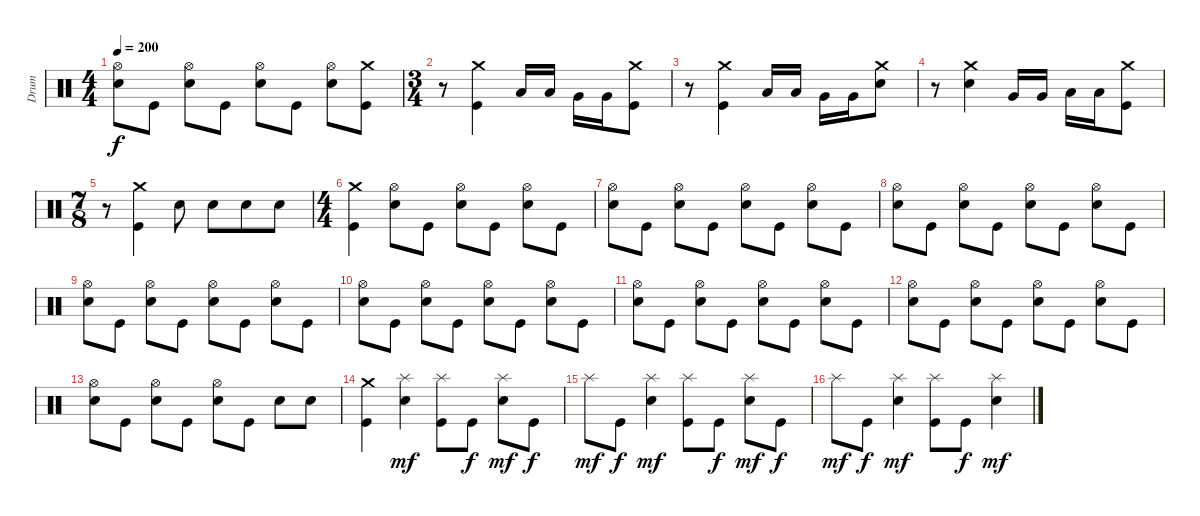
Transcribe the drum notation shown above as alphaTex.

\track ("Drum" "Drum") {instrument percussion}
\staff {score}
\articulation defaults
\ts (4 4)
\tempo 200
\clef neutral
\ks c
("Electric Snare (hit)" "Hi-Hat (open)").8{dy f} "Kick (hit)".8 ("Electric Snare (hit)" "Hi-Hat (open)").8 "Kick (hit)".8 ("Electric Snare (hit)" "Hi-Hat (open)").8 "Kick (hit)".8 ("Electric Snare (hit)" "Hi-Hat (open)").8 ("Kick (hit)" "Crash medium (hit)").8 |
\ts (3 4)
r.8 ("Kick (hit)" "Crash medium (hit)").4 "Low Tom (hit)".16 "Low Tom (hit)".16 "Very Low Tom (hit)".16 "Very Low Tom (hit)".16 ("Kick (hit)" "Crash medium (hit)").8 |
r.8 ("Kick (hit)" "Crash medium (hit)").4 "Low Tom (hit)".16 "Low Tom (hit)".16 "Very Low Tom (hit)".16 "Very Low Tom (hit)".16 ("Electric Snare (hit)" "Crash medium (hit)").8 |
r.8 ("Electric Snare (hit)" "Crash medium (hit)").4 "Very Low Tom (hit)".16 "Very Low Tom (hit)".16 "Low Tom (hit)".16 "Low Tom (hit)".16 ("Kick (hit)" "Crash medium (hit)").8 |
\ts (7 8)
r.8 ("Kick (hit)" "Crash medium (hit)").4 "Electric Snare (hit)".8 "Electric Snare (hit)".8 "Electric Snare (hit)".8 "Electric Snare (hit)".8 |
\ts (4 4)
("Kick (hit)" "Crash medium (hit)").4 ("Electric Snare (hit)" "Hi-Hat (open)").8 "Kick (hit)".8 ("Electric Snare (hit)" "Hi-Hat (open)").8 "Kick (hit)".8 ("Electric Snare (hit)" "Hi-Hat (open)").8 "Kick (hit)".8 |
("Electric Snare (hit)" "Hi-Hat (open)").8 "Kick (hit)".8 ("Electric Snare (hit)" "Hi-Hat (open)").8 "Kick (hit)".8 ("Electric Snare (hit)" "Hi-Hat (open)").8 "Kick (hit)".8 ("Electric Snare (hit)" "Hi-Hat (open)").8 "Kick (hit)".8 |
("Electric Snare (hit)" "Hi-Hat (open)").8 "Kick (hit)".8 ("Electric Snare (hit)" "Hi-Hat (open)").8 "Kick (hit)".8 ("Electric Snare (hit)" "Hi-Hat (open)").8 "Kick (hit)".8 ("Electric Snare (hit)" "Hi-Hat (open)").8 "Kick (hit)".8 |
("Electric Snare (hit)" "Hi-Hat (open)").8 "Kick (hit)".8 ("Electric Snare (hit)" "Hi-Hat (open)").8 "Kick (hit)".8 ("Electric Snare (hit)" "Hi-Hat (open)").8 "Kick (hit)".8 ("Electric Snare (hit)" "Hi-Hat (open)").8 "Kick (hit)".8 |
("Electric Snare (hit)" "Hi-Hat (open)").8 "Kick (hit)".8 ("Electric Snare (hit)" "Hi-Hat (open)").8 "Kick (hit)".8 ("Electric Snare (hit)" "Hi-Hat (open)").8 "Kick (hit)".8 ("Electric Snare (hit)" "Hi-Hat (open)").8 "Kick (hit)".8 |
("Electric Snare (hit)" "Hi-Hat (open)").8 "Kick (hit)".8 ("Electric Snare (hit)" "Hi-Hat (open)").8 "Kick (hit)".8 ("Electric Snare (hit)" "Hi-Hat (open)").8 "Kick (hit)".8 ("Electric Snare (hit)" "Hi-Hat (open)").8 "Kick (hit)".8 |
("Electric Snare (hit)" "Hi-Hat (open)").8 "Kick (hit)".8 ("Electric Snare (hit)" "Hi-Hat (open)").8 "Kick (hit)".8 ("Electric Snare (hit)" "Hi-Hat (open)").8 "Kick (hit)".8 ("Electric Snare (hit)" "Hi-Hat (open)").8 "Kick (hit)".8 |
("Electric Snare (hit)" "Hi-Hat (open)").8 "Kick (hit)".8 ("Electric Snare (hit)" "Hi-Hat (open)").8 "Kick (hit)".8 ("Electric Snare (hit)" "Hi-Hat (open)").8 "Kick (hit)".8 "Electric Snare (hit)".8 "Electric Snare (hit)".8 |
("Kick (hit)" "Crash medium (hit)").4 ("Electric Snare (hit)" "Splash (hit)").4{dy mf} ("Kick (hit)" "Splash (hit)").8 "Kick (hit)".8{dy f} ("Electric Snare (hit)" "Splash (hit)").8{dy mf} "Kick (hit)".8{dy f} |
"Splash (hit)".8{dy mf} "Kick (hit)".8{dy f} ("Electric Snare (hit)" "Splash (hit)").4{dy mf} ("Kick (hit)" "Splash (hit)").8 "Kick (hit)".8{dy f} ("Electric Snare (hit)" "Splash (hit)").8{dy mf} "Kick (hit)".8{dy f} |
"Splash (hit)".8{dy mf} "Kick (hit)".8{dy f} ("Electric Snare (hit)" "Splash (hit)").4{dy mf} ("Kick (hit)" "Splash (hit)").8 "Kick (hit)".8{dy f} ("Electric Snare (hit)" "Splash (hit)").4{dy mf}
